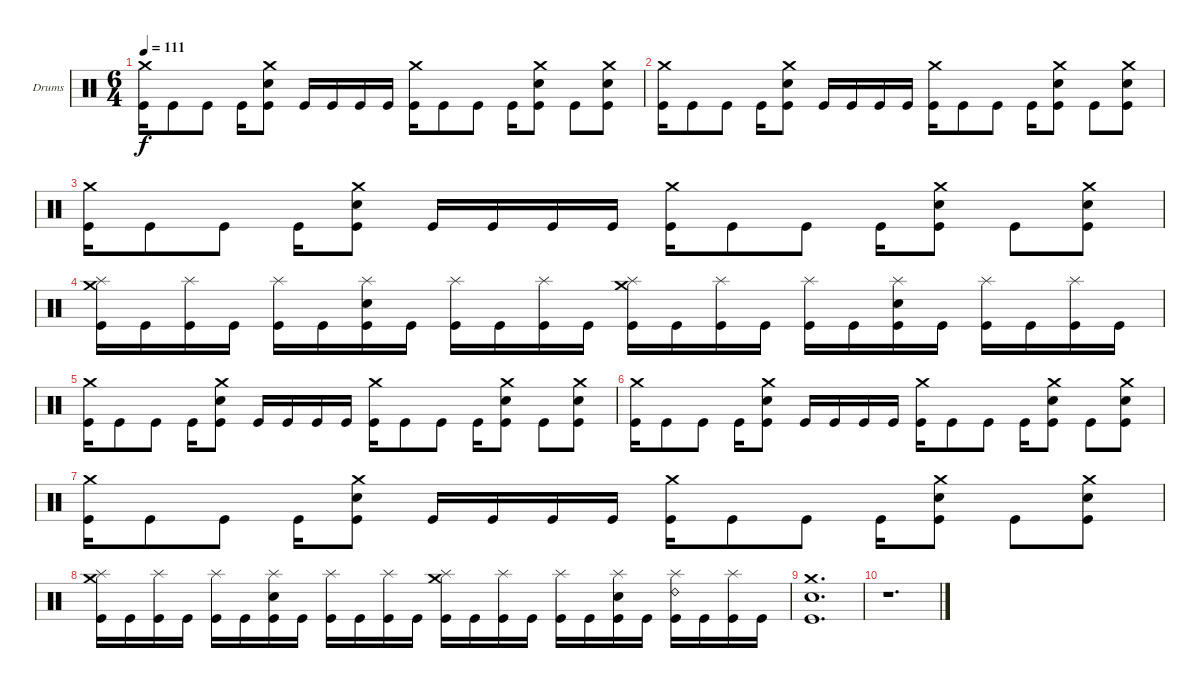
\bracketExtendMode groupsimilarinstruments
\firstSystemTrackNameOrientation horizontal
\otherSystemsTrackNameOrientation horizontal
\track ("Drumkit" "Drums") {instrument percussion}
\staff {score}
\articulation defaults
\ts (6 4)
\tempo 111
\clef neutral
\ks c
("Crash medium (hit)" "Kick (hit)").16{dy f} "Kick (hit)".8 "Kick (hit)".8 "Kick (hit)".16 ("Crash medium (hit)" "Snare (hit) 2" "Kick (hit)").8 "Kick (hit)".16 "Kick (hit)".16 "Kick (hit)".16 "Kick (hit)".16 ("Crash medium (hit)" "Kick (hit)").16 "Kick (hit)".8 "Kick (hit)".8 "Kick (hit)".16 ("Crash medium (hit)" "Snare (hit) 2" "Kick (hit)").8 "Kick (hit)".8 ("Crash medium (hit)" "Snare (hit) 2" "Kick (hit)").8 |
("Crash medium (hit)" "Kick (hit)").16 "Kick (hit)".8 "Kick (hit)".8 "Kick (hit)".16 ("Crash medium (hit)" "Snare (hit) 2" "Kick (hit)").8 "Kick (hit)".16 "Kick (hit)".16 "Kick (hit)".16 "Kick (hit)".16 ("Crash medium (hit)" "Kick (hit)").16 "Kick (hit)".8 "Kick (hit)".8 "Kick (hit)".16 ("Crash medium (hit)" "Snare (hit) 2" "Kick (hit)").8 "Kick (hit)".8 ("Crash medium (hit)" "Snare (hit) 2" "Kick (hit)").8 |
("Crash medium (hit)" "Kick (hit)").16 "Kick (hit)".8 "Kick (hit)".8 "Kick (hit)".16 ("Crash medium (hit)" "Snare (hit) 2" "Kick (hit)").8 "Kick (hit)".16 "Kick (hit)".16 "Kick (hit)".16 "Kick (hit)".16 ("Crash medium (hit)" "Kick (hit)").16 "Kick (hit)".8 "Kick (hit)".8 "Kick (hit)".16 ("Crash medium (hit)" "Snare (hit) 2" "Kick (hit)").8 "Kick (hit)".8 ("Crash medium (hit)" "Snare (hit) 2" "Kick (hit)").8 |
("Splash (hit)" "Crash medium (hit)" "Kick (hit)").16 "Kick (hit)".16 ("Splash (hit)" "Kick (hit)").16 "Kick (hit)".16 ("Splash (hit)" "Kick (hit)").16 "Kick (hit)".16 ("Splash (hit)" "Snare (hit) 2" "Kick (hit)").16 "Kick (hit)".16 ("Splash (hit)" "Kick (hit)").16 "Kick (hit)".16 ("Splash (hit)" "Kick (hit)").16 "Kick (hit)".16 ("Splash (hit)" "Crash medium (hit)" "Kick (hit)").16 "Kick (hit)".16 ("Splash (hit)" "Kick (hit)").16 "Kick (hit)".16 ("Splash (hit)" "Kick (hit)").16 "Kick (hit)".16 ("Splash (hit)" "Snare (hit) 2" "Kick (hit)").16 "Kick (hit)".16 ("Splash (hit)" "Kick (hit)").16 "Kick (hit)".16 ("Splash (hit)" "Kick (hit)").16 "Kick (hit)".16 |
("Crash medium (hit)" "Kick (hit)").16 "Kick (hit)".8 "Kick (hit)".8 "Kick (hit)".16 ("Crash medium (hit)" "Snare (hit) 2" "Kick (hit)").8 "Kick (hit)".16 "Kick (hit)".16 "Kick (hit)".16 "Kick (hit)".16 ("Crash medium (hit)" "Kick (hit)").16 "Kick (hit)".8 "Kick (hit)".8 "Kick (hit)".16 ("Crash medium (hit)" "Snare (hit) 2" "Kick (hit)").8 "Kick (hit)".8 ("Crash medium (hit)" "Snare (hit) 2" "Kick (hit)").8 |
("Crash medium (hit)" "Kick (hit)").16 "Kick (hit)".8 "Kick (hit)".8 "Kick (hit)".16 ("Crash medium (hit)" "Snare (hit) 2" "Kick (hit)").8 "Kick (hit)".16 "Kick (hit)".16 "Kick (hit)".16 "Kick (hit)".16 ("Crash medium (hit)" "Kick (hit)").16 "Kick (hit)".8 "Kick (hit)".8 "Kick (hit)".16 ("Crash medium (hit)" "Snare (hit) 2" "Kick (hit)").8 "Kick (hit)".8 ("Crash medium (hit)" "Snare (hit) 2" "Kick (hit)").8 |
("Crash medium (hit)" "Kick (hit)").16 "Kick (hit)".8 "Kick (hit)".8 "Kick (hit)".16 ("Crash medium (hit)" "Snare (hit) 2" "Kick (hit)").8 "Kick (hit)".16 "Kick (hit)".16 "Kick (hit)".16 "Kick (hit)".16 ("Crash medium (hit)" "Kick (hit)").16 "Kick (hit)".8 "Kick (hit)".8 "Kick (hit)".16 ("Crash medium (hit)" "Snare (hit) 2" "Kick (hit)").8 "Kick (hit)".8 ("Crash medium (hit)" "Snare (hit) 2" "Kick (hit)").8 |
("Splash (hit)" "Crash medium (hit)" "Kick (hit)").16 "Kick (hit)".16 ("Splash (hit)" "Kick (hit)").16 "Kick (hit)".16 ("Splash (hit)" "Kick (hit)").16 "Kick (hit)".16 ("Splash (hit)" "Snare (hit) 2" "Kick (hit)").16 "Kick (hit)".16 ("Splash (hit)" "Kick (hit)").16 "Kick (hit)".16 ("Splash (hit)" "Kick (hit)").16 "Kick (hit)".16 ("Splash (hit)" "Crash medium (hit)" "Kick (hit)").16 "Kick (hit)".16 ("Splash (hit)" "Kick (hit)").16 "Kick (hit)".16 ("Splash (hit)" "Kick (hit)").16 "Kick (hit)".16 ("Splash (hit)" "Snare (hit) 2" "Kick (hit)").16 "Kick (hit)".16 ("Splash (hit)" "Ride (bell) 2" "Kick (hit)").16 "Kick (hit)".16 ("Splash (hit)" "Kick (hit)").16 "Kick (hit)".16 |
("Crash medium (hit)" "Snare (hit) 2" "Kick (hit)").1{d} |
r.1{d}
